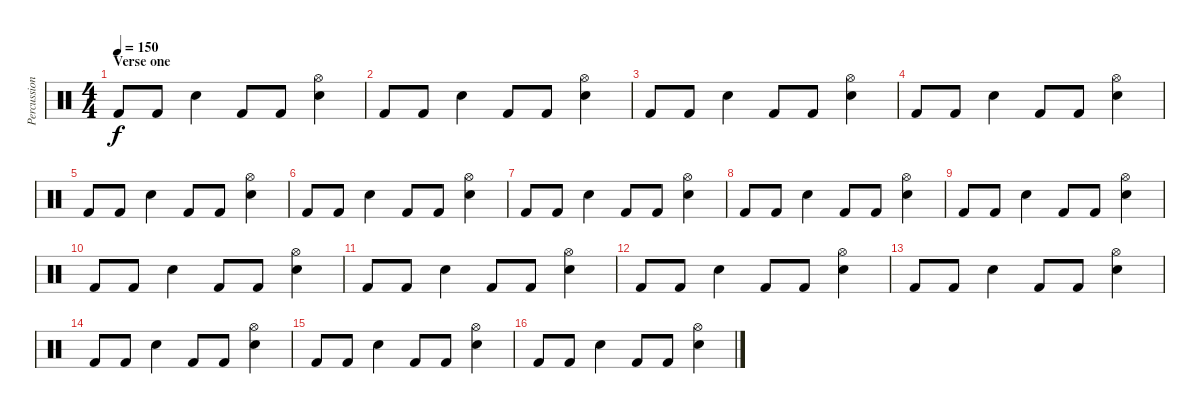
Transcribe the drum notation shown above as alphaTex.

\track ("Percussion" "Percussion") {instrument percussion}
\staff {score}
\articulation defaults
\ts (4 4)
\section ("" "Verse one")
\tempo 150
\clef neutral
\ks c "Kick (hit) 2".8{dy f} "Kick (hit) 2".8 "Electric Snare (hit)".4 "Kick (hit) 2".8 "Kick (hit) 2".8
("Hi-Hat (open)" "Electric Snare (hit)").4 |
"Kick (hit) 2".8 "Kick (hit) 2".8 "Electric Snare (hit)".4 "Kick (hit) 2".8 "Kick (hit) 2".8 ("Hi-Hat (open)" "Electric Snare (hit)").4 |
"Kick (hit) 2".8 "Kick (hit) 2".8 "Electric Snare (hit)".4 "Kick (hit) 2".8 "Kick (hit) 2".8 ("Hi-Hat (open)" "Electric Snare (hit)").4 |
"Kick (hit) 2".8 "Kick (hit) 2".8 "Electric Snare (hit)".4 "Kick (hit) 2".8 "Kick (hit) 2".8 ("Hi-Hat (open)" "Electric Snare (hit)").4 |
"Kick (hit) 2".8 "Kick (hit) 2".8 "Electric Snare (hit)".4 "Kick (hit) 2".8 "Kick (hit) 2".8 ("Hi-Hat (open)" "Electric Snare (hit)").4 |
"Kick (hit) 2".8 "Kick (hit) 2".8 "Electric Snare (hit)".4 "Kick (hit) 2".8 "Kick (hit) 2".8 ("Hi-Hat (open)" "Electric Snare (hit)").4 |
"Kick (hit) 2".8 "Kick (hit) 2".8 "Electric Snare (hit)".4 "Kick (hit) 2".8 "Kick (hit) 2".8 ("Hi-Hat (open)" "Electric Snare (hit)").4 |
"Kick (hit) 2".8 "Kick (hit) 2".8 "Electric Snare (hit)".4 "Kick (hit) 2".8 "Kick (hit) 2".8 ("Hi-Hat (open)" "Electric Snare (hit)").4 |
"Kick (hit) 2".8 "Kick (hit) 2".8 "Electric Snare (hit)".4 "Kick (hit) 2".8 "Kick (hit) 2".8 ("Hi-Hat (open)" "Electric Snare (hit)").4 |
"Kick (hit) 2".8 "Kick (hit) 2".8 "Electric Snare (hit)".4 "Kick (hit) 2".8 "Kick (hit) 2".8 ("Hi-Hat (open)" "Electric Snare (hit)").4 |
"Kick (hit) 2".8 "Kick (hit) 2".8 "Electric Snare (hit)".4 "Kick (hit) 2".8 "Kick (hit) 2".8 ("Hi-Hat (open)" "Electric Snare (hit)").4 |
"Kick (hit) 2".8 "Kick (hit) 2".8 "Electric Snare (hit)".4 "Kick (hit) 2".8 "Kick (hit) 2".8 ("Hi-Hat (open)" "Electric Snare (hit)").4 |
"Kick (hit) 2".8 "Kick (hit) 2".8 "Electric Snare (hit)".4 "Kick (hit) 2".8 "Kick (hit) 2".8 ("Hi-Hat (open)" "Electric Snare (hit)").4 |
"Kick (hit) 2".8 "Kick (hit) 2".8 "Electric Snare (hit)".4 "Kick (hit) 2".8 "Kick (hit) 2".8 ("Hi-Hat (open)" "Electric Snare (hit)").4 |
"Kick (hit) 2".8 "Kick (hit) 2".8 "Electric Snare (hit)".4 "Kick (hit) 2".8 "Kick (hit) 2".8 ("Hi-Hat (open)" "Electric Snare (hit)").4 |
"Kick (hit) 2".8 "Kick (hit) 2".8 "Electric Snare (hit)".4 "Kick (hit) 2".8 "Kick (hit) 2".8 ("Hi-Hat (open)" "Electric Snare (hit)").4
